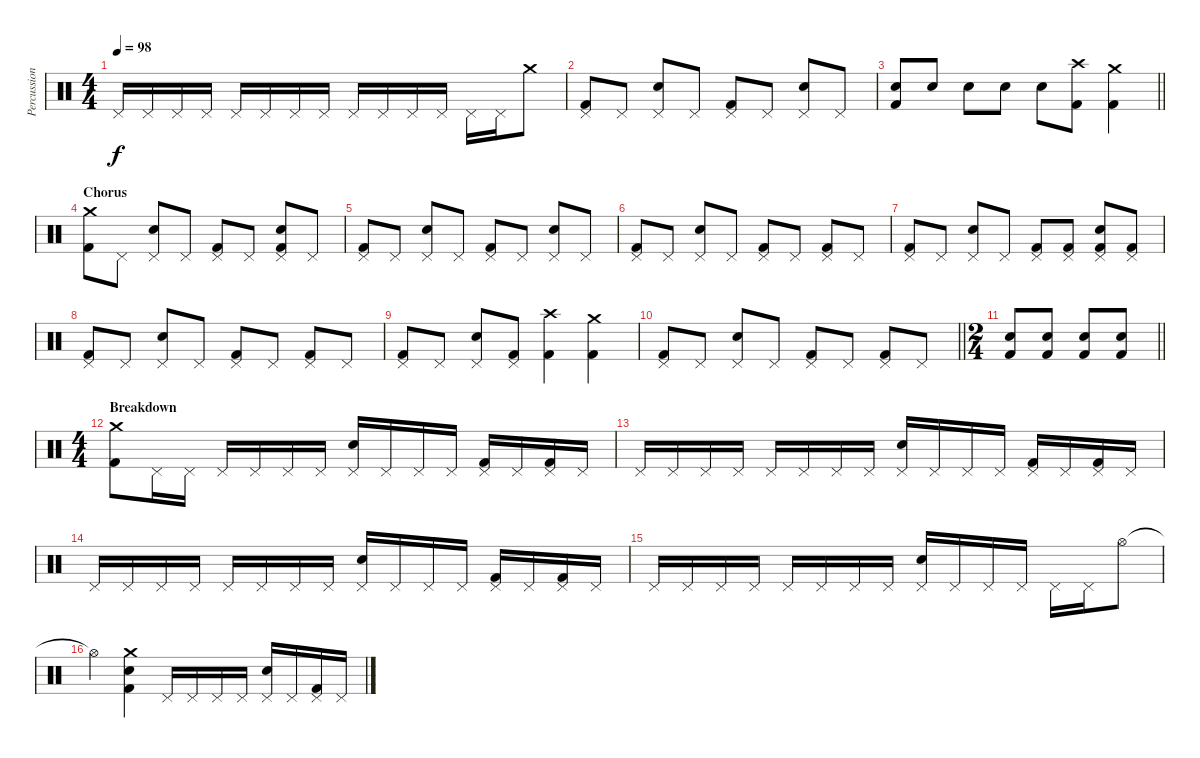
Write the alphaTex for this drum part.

\track ("Percussion" "Percussion") {instrument percussion}
\staff {score}
\articulation defaults
\ts (4 4)
\tempo 98
\clef neutral
\ks c "Pedal Hi-Hat (hit)".16{dy f} "Pedal Hi-Hat (hit)".16 "Pedal Hi-Hat (hit)".16 "Pedal Hi-Hat (hit)".16 "Pedal Hi-Hat (hit)".16 "Pedal Hi-Hat (hit)".16 "Pedal Hi-Hat (hit)".16 "Pedal Hi-Hat (hit)".16 "Pedal Hi-Hat (hit)".16 "Pedal Hi-Hat (hit)".16 "Pedal Hi-Hat (hit)".16 "Pedal Hi-Hat (hit)".16 "Pedal Hi-Hat (hit)".16 "Pedal Hi-Hat (hit)".16 "Crash medium (hit)".8
|
("Pedal Hi-Hat (hit)" "Kick (hit) 2").8 "Pedal Hi-Hat (hit)".8 ("Pedal Hi-Hat (hit)" "Snare (hit) 2").8 "Pedal Hi-Hat (hit)".8 ("Pedal Hi-Hat (hit)" "Kick (hit) 2").8 "Pedal Hi-Hat (hit)".8 ("Pedal Hi-Hat (hit)" "Snare (hit) 2").8 "Pedal Hi-Hat (hit)".8 |
\barLineRight lightlight
("Snare (hit) 2" "Kick (hit) 2").8 "Snare (hit) 2".8 "Snare (hit) 2".8 "Snare (hit) 2".8 "Snare (hit) 2".8 ("Crash high (hit)" "Kick (hit) 2").8 ("Crash medium (hit)" "Kick (hit) 2").4 |
\section ("" "Chorus")
("Crash medium (hit)" "Kick (hit) 2").8 "Pedal Hi-Hat (hit)".8 ("Pedal Hi-Hat (hit)" "Snare (hit) 2").8 "Pedal Hi-Hat (hit)".8 ("Pedal Hi-Hat (hit)" "Kick (hit) 2").8 "Pedal Hi-Hat (hit)".8 ("Pedal Hi-Hat (hit)" "Snare (hit) 2" "Kick (hit) 2").8 "Pedal Hi-Hat (hit)".8 |
("Pedal Hi-Hat (hit)" "Kick (hit) 2").8 "Pedal Hi-Hat (hit)".8 ("Pedal Hi-Hat (hit)" "Snare (hit) 2").8 "Pedal Hi-Hat (hit)".8 ("Pedal Hi-Hat (hit)" "Kick (hit) 2").8 "Pedal Hi-Hat (hit)".8 ("Pedal Hi-Hat (hit)" "Snare (hit) 2").8 "Pedal Hi-Hat (hit)".8 |
("Pedal Hi-Hat (hit)" "Kick (hit) 2").8 "Pedal Hi-Hat (hit)".8 ("Pedal Hi-Hat (hit)" "Snare (hit) 2").8 "Pedal Hi-Hat (hit)".8 ("Pedal Hi-Hat (hit)" "Kick (hit) 2").8 "Pedal Hi-Hat (hit)".8 ("Pedal Hi-Hat (hit)" "Kick (hit) 2").8 "Pedal Hi-Hat (hit)".8 |
("Pedal Hi-Hat (hit)" "Kick (hit) 2").8 "Pedal Hi-Hat (hit)".8 ("Pedal Hi-Hat (hit)" "Snare (hit) 2").8 "Pedal Hi-Hat (hit)".8 ("Pedal Hi-Hat (hit)" "Kick (hit) 2").8 ("Pedal Hi-Hat (hit)" "Kick (hit) 2").8 ("Pedal Hi-Hat (hit)" "Snare (hit) 2" "Kick (hit) 2").8 ("Pedal Hi-Hat (hit)" "Kick (hit) 2").8 |
("Pedal Hi-Hat (hit)" "Kick (hit) 2").8 "Pedal Hi-Hat (hit)".8 ("Pedal Hi-Hat (hit)" "Snare (hit) 2").8 "Pedal Hi-Hat (hit)".8 ("Pedal Hi-Hat (hit)" "Kick (hit) 2").8 "Pedal Hi-Hat (hit)".8 ("Pedal Hi-Hat (hit)" "Kick (hit) 2").8 "Pedal Hi-Hat (hit)".8 |
("Pedal Hi-Hat (hit)" "Kick (hit) 2").8 "Pedal Hi-Hat (hit)".8 ("Pedal Hi-Hat (hit)" "Snare (hit) 2").8 ("Pedal Hi-Hat (hit)" "Kick (hit) 2").8 ("Crash high (hit)" "Kick (hit) 2").4 ("Crash medium (hit)" "Kick (hit) 2").4 |
\barLineRight lightlight
("Pedal Hi-Hat (hit)" "Kick (hit) 2").8 "Pedal Hi-Hat (hit)".8 ("Pedal Hi-Hat (hit)" "Snare (hit) 2").8 "Pedal Hi-Hat (hit)".8 ("Pedal Hi-Hat (hit)" "Kick (hit) 2").8 "Pedal Hi-Hat (hit)".8 ("Pedal Hi-Hat (hit)" "Kick (hit) 2").8 "Pedal Hi-Hat (hit)".8 |
\ts (2 4)
\barLineRight lightlight
("Snare (hit) 2" "Kick (hit) 2").8 ("Snare (hit) 2" "Kick (hit) 2").8 ("Snare (hit) 2" "Kick (hit) 2").8 ("Snare (hit) 2" "Kick (hit) 2").8 |
\ts (4 4)
\section ("" "Breakdown")
("Crash medium (hit)" "Kick (hit) 2").8 "Pedal Hi-Hat (hit)".16 "Pedal Hi-Hat (hit)".16 "Pedal Hi-Hat (hit)".16 "Pedal Hi-Hat (hit)".16 "Pedal Hi-Hat (hit)".16 "Pedal Hi-Hat (hit)".16 ("Pedal Hi-Hat (hit)" "Snare (hit) 2").16 "Pedal Hi-Hat (hit)".16 "Pedal Hi-Hat (hit)".16 "Pedal Hi-Hat (hit)".16 ("Pedal Hi-Hat (hit)" "Kick (hit) 2").16 "Pedal Hi-Hat (hit)".16 ("Pedal Hi-Hat (hit)" "Kick (hit) 2").16 "Pedal Hi-Hat (hit)".16 |
"Pedal Hi-Hat (hit)".16 "Pedal Hi-Hat (hit)".16 "Pedal Hi-Hat (hit)".16 "Pedal Hi-Hat (hit)".16 "Pedal Hi-Hat (hit)".16 "Pedal Hi-Hat (hit)".16 "Pedal Hi-Hat (hit)".16 "Pedal Hi-Hat (hit)".16 ("Pedal Hi-Hat (hit)" "Snare (hit) 2").16 "Pedal Hi-Hat (hit)".16 "Pedal Hi-Hat (hit)".16 "Pedal Hi-Hat (hit)".16 ("Pedal Hi-Hat (hit)" "Kick (hit) 2").16 "Pedal Hi-Hat (hit)".16 ("Pedal Hi-Hat (hit)" "Kick (hit) 2").16 "Pedal Hi-Hat (hit)".16 |
"Pedal Hi-Hat (hit)".16 "Pedal Hi-Hat (hit)".16 "Pedal Hi-Hat (hit)".16 "Pedal Hi-Hat (hit)".16 "Pedal Hi-Hat (hit)".16 "Pedal Hi-Hat (hit)".16 "Pedal Hi-Hat (hit)".16 "Pedal Hi-Hat (hit)".16 ("Pedal Hi-Hat (hit)" "Snare (hit) 2").16 "Pedal Hi-Hat (hit)".16 "Pedal Hi-Hat (hit)".16 "Pedal Hi-Hat (hit)".16 ("Pedal Hi-Hat (hit)" "Kick (hit) 2").16 "Pedal Hi-Hat (hit)".16 ("Pedal Hi-Hat (hit)" "Kick (hit) 2").16 "Pedal Hi-Hat (hit)".16 |
"Pedal Hi-Hat (hit)".16 "Pedal Hi-Hat (hit)".16 "Pedal Hi-Hat (hit)".16 "Pedal Hi-Hat (hit)".16 "Pedal Hi-Hat (hit)".16 "Pedal Hi-Hat (hit)".16 "Pedal Hi-Hat (hit)".16 "Pedal Hi-Hat (hit)".16 ("Pedal Hi-Hat (hit)" "Snare (hit) 2").16 "Pedal Hi-Hat (hit)".16 "Pedal Hi-Hat (hit)".16 "Pedal Hi-Hat (hit)".16 "Pedal Hi-Hat (hit)".16 "Pedal Hi-Hat (hit)".16 "Hi-Hat (open)".8 |
"Hi-Hat (open)"{t}.4 ("Crash medium (hit)" "Snare (hit) 2" "Kick (hit) 2").4 "Pedal Hi-Hat (hit)".16 "Pedal Hi-Hat (hit)".16 "Pedal Hi-Hat (hit)".16 "Pedal Hi-Hat (hit)".16 ("Pedal Hi-Hat (hit)" "Snare (hit) 2").16 "Pedal Hi-Hat (hit)".16 ("Pedal Hi-Hat (hit)" "Kick (hit) 2").16 "Pedal Hi-Hat (hit)".16
